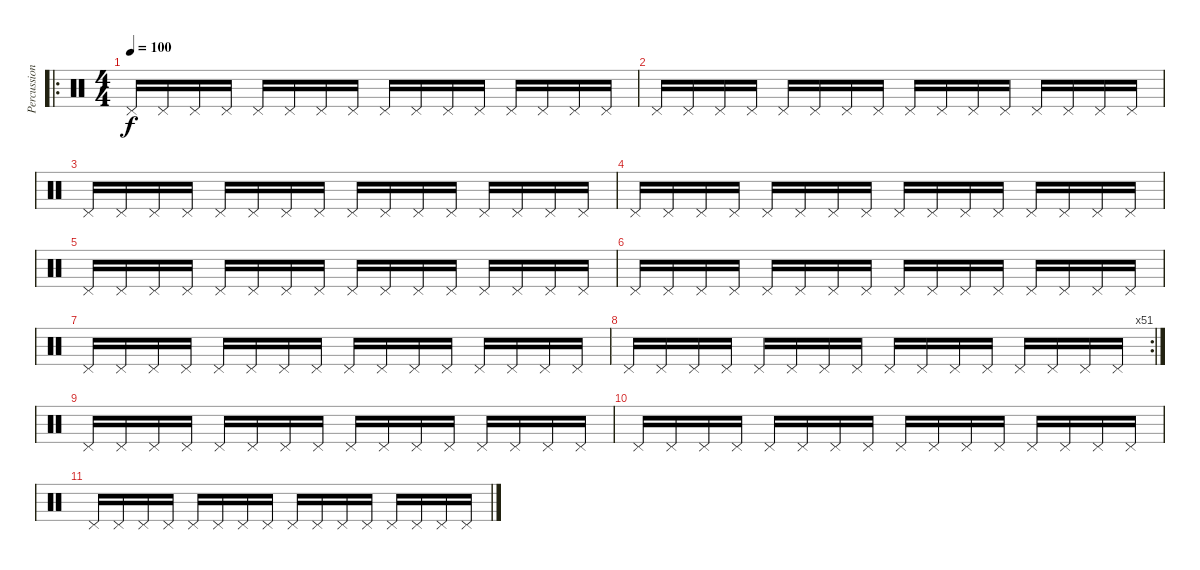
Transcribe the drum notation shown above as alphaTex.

\track ("Percussions" "Percussion") {instrument percussion}
\staff {score}
\articulation defaults
\ro
\ts (4 4)
\tempo 100
\clef neutral
\ks c "Pedal Hi-Hat (hit)".16{dy f} "Pedal Hi-Hat (hit)".16 "Pedal Hi-Hat (hit)".16 "Pedal Hi-Hat (hit)".16 "Pedal Hi-Hat (hit)".16 "Pedal Hi-Hat (hit)".16 "Pedal Hi-Hat (hit)".16 "Pedal Hi-Hat (hit)".16 "Pedal Hi-Hat (hit)".16 "Pedal Hi-Hat (hit)".16 "Pedal Hi-Hat (hit)".16 "Pedal Hi-Hat (hit)".16 "Pedal Hi-Hat (hit)".16 "Pedal Hi-Hat (hit)".16 "Pedal Hi-Hat (hit)".16 "Pedal Hi-Hat (hit)".16
|
"Pedal Hi-Hat (hit)".16 "Pedal Hi-Hat (hit)".16 "Pedal Hi-Hat (hit)".16 "Pedal Hi-Hat (hit)".16 "Pedal Hi-Hat (hit)".16 "Pedal Hi-Hat (hit)".16 "Pedal Hi-Hat (hit)".16 "Pedal Hi-Hat (hit)".16 "Pedal Hi-Hat (hit)".16 "Pedal Hi-Hat (hit)".16 "Pedal Hi-Hat (hit)".16 "Pedal Hi-Hat (hit)".16 "Pedal Hi-Hat (hit)".16 "Pedal Hi-Hat (hit)".16 "Pedal Hi-Hat (hit)".16 "Pedal Hi-Hat (hit)".16 |
"Pedal Hi-Hat (hit)".16 "Pedal Hi-Hat (hit)".16 "Pedal Hi-Hat (hit)".16 "Pedal Hi-Hat (hit)".16 "Pedal Hi-Hat (hit)".16 "Pedal Hi-Hat (hit)".16 "Pedal Hi-Hat (hit)".16 "Pedal Hi-Hat (hit)".16 "Pedal Hi-Hat (hit)".16 "Pedal Hi-Hat (hit)".16 "Pedal Hi-Hat (hit)".16 "Pedal Hi-Hat (hit)".16 "Pedal Hi-Hat (hit)".16 "Pedal Hi-Hat (hit)".16 "Pedal Hi-Hat (hit)".16 "Pedal Hi-Hat (hit)".16 |
"Pedal Hi-Hat (hit)".16 "Pedal Hi-Hat (hit)".16 "Pedal Hi-Hat (hit)".16 "Pedal Hi-Hat (hit)".16 "Pedal Hi-Hat (hit)".16 "Pedal Hi-Hat (hit)".16 "Pedal Hi-Hat (hit)".16 "Pedal Hi-Hat (hit)".16 "Pedal Hi-Hat (hit)".16 "Pedal Hi-Hat (hit)".16 "Pedal Hi-Hat (hit)".16 "Pedal Hi-Hat (hit)".16 "Pedal Hi-Hat (hit)".16 "Pedal Hi-Hat (hit)".16 "Pedal Hi-Hat (hit)".16 "Pedal Hi-Hat (hit)".16 |
"Pedal Hi-Hat (hit)".16 "Pedal Hi-Hat (hit)".16 "Pedal Hi-Hat (hit)".16 "Pedal Hi-Hat (hit)".16 "Pedal Hi-Hat (hit)".16 "Pedal Hi-Hat (hit)".16 "Pedal Hi-Hat (hit)".16 "Pedal Hi-Hat (hit)".16 "Pedal Hi-Hat (hit)".16 "Pedal Hi-Hat (hit)".16 "Pedal Hi-Hat (hit)".16 "Pedal Hi-Hat (hit)".16 "Pedal Hi-Hat (hit)".16 "Pedal Hi-Hat (hit)".16 "Pedal Hi-Hat (hit)".16 "Pedal Hi-Hat (hit)".16 |
"Pedal Hi-Hat (hit)".16 "Pedal Hi-Hat (hit)".16 "Pedal Hi-Hat (hit)".16 "Pedal Hi-Hat (hit)".16 "Pedal Hi-Hat (hit)".16 "Pedal Hi-Hat (hit)".16 "Pedal Hi-Hat (hit)".16 "Pedal Hi-Hat (hit)".16 "Pedal Hi-Hat (hit)".16 "Pedal Hi-Hat (hit)".16 "Pedal Hi-Hat (hit)".16 "Pedal Hi-Hat (hit)".16 "Pedal Hi-Hat (hit)".16 "Pedal Hi-Hat (hit)".16 "Pedal Hi-Hat (hit)".16 "Pedal Hi-Hat (hit)".16 |
"Pedal Hi-Hat (hit)".16 "Pedal Hi-Hat (hit)".16 "Pedal Hi-Hat (hit)".16 "Pedal Hi-Hat (hit)".16 "Pedal Hi-Hat (hit)".16 "Pedal Hi-Hat (hit)".16 "Pedal Hi-Hat (hit)".16 "Pedal Hi-Hat (hit)".16 "Pedal Hi-Hat (hit)".16 "Pedal Hi-Hat (hit)".16 "Pedal Hi-Hat (hit)".16 "Pedal Hi-Hat (hit)".16 "Pedal Hi-Hat (hit)".16 "Pedal Hi-Hat (hit)".16 "Pedal Hi-Hat (hit)".16 "Pedal Hi-Hat (hit)".16 |
\rc 51 "Pedal Hi-Hat (hit)".16 "Pedal Hi-Hat (hit)".16 "Pedal Hi-Hat (hit)".16 "Pedal Hi-Hat (hit)".16 "Pedal Hi-Hat (hit)".16 "Pedal Hi-Hat (hit)".16 "Pedal Hi-Hat (hit)".16 "Pedal Hi-Hat (hit)".16 "Pedal Hi-Hat (hit)".16 "Pedal Hi-Hat (hit)".16 "Pedal Hi-Hat (hit)".16 "Pedal Hi-Hat (hit)".16 "Pedal Hi-Hat (hit)".16 "Pedal Hi-Hat (hit)".16 "Pedal Hi-Hat (hit)".16 "Pedal Hi-Hat (hit)".16
|
"Pedal Hi-Hat (hit)".16 "Pedal Hi-Hat (hit)".16 "Pedal Hi-Hat (hit)".16 "Pedal Hi-Hat (hit)".16 "Pedal Hi-Hat (hit)".16 "Pedal Hi-Hat (hit)".16 "Pedal Hi-Hat (hit)".16 "Pedal Hi-Hat (hit)".16 "Pedal Hi-Hat (hit)".16 "Pedal Hi-Hat (hit)".16 "Pedal Hi-Hat (hit)".16 "Pedal Hi-Hat (hit)".16 "Pedal Hi-Hat (hit)".16 "Pedal Hi-Hat (hit)".16 "Pedal Hi-Hat (hit)".16 "Pedal Hi-Hat (hit)".16 |
"Pedal Hi-Hat (hit)".16 "Pedal Hi-Hat (hit)".16 "Pedal Hi-Hat (hit)".16 "Pedal Hi-Hat (hit)".16 "Pedal Hi-Hat (hit)".16 "Pedal Hi-Hat (hit)".16 "Pedal Hi-Hat (hit)".16 "Pedal Hi-Hat (hit)".16 "Pedal Hi-Hat (hit)".16 "Pedal Hi-Hat (hit)".16 "Pedal Hi-Hat (hit)".16 "Pedal Hi-Hat (hit)".16 "Pedal Hi-Hat (hit)".16 "Pedal Hi-Hat (hit)".16 "Pedal Hi-Hat (hit)".16 "Pedal Hi-Hat (hit)".16 |
"Pedal Hi-Hat (hit)".16 "Pedal Hi-Hat (hit)".16 "Pedal Hi-Hat (hit)".16 "Pedal Hi-Hat (hit)".16 "Pedal Hi-Hat (hit)".16 "Pedal Hi-Hat (hit)".16 "Pedal Hi-Hat (hit)".16 "Pedal Hi-Hat (hit)".16 "Pedal Hi-Hat (hit)".16 "Pedal Hi-Hat (hit)".16 "Pedal Hi-Hat (hit)".16 "Pedal Hi-Hat (hit)".16 "Pedal Hi-Hat (hit)".16 "Pedal Hi-Hat (hit)".16 "Pedal Hi-Hat (hit)".16 "Pedal Hi-Hat (hit)".16
